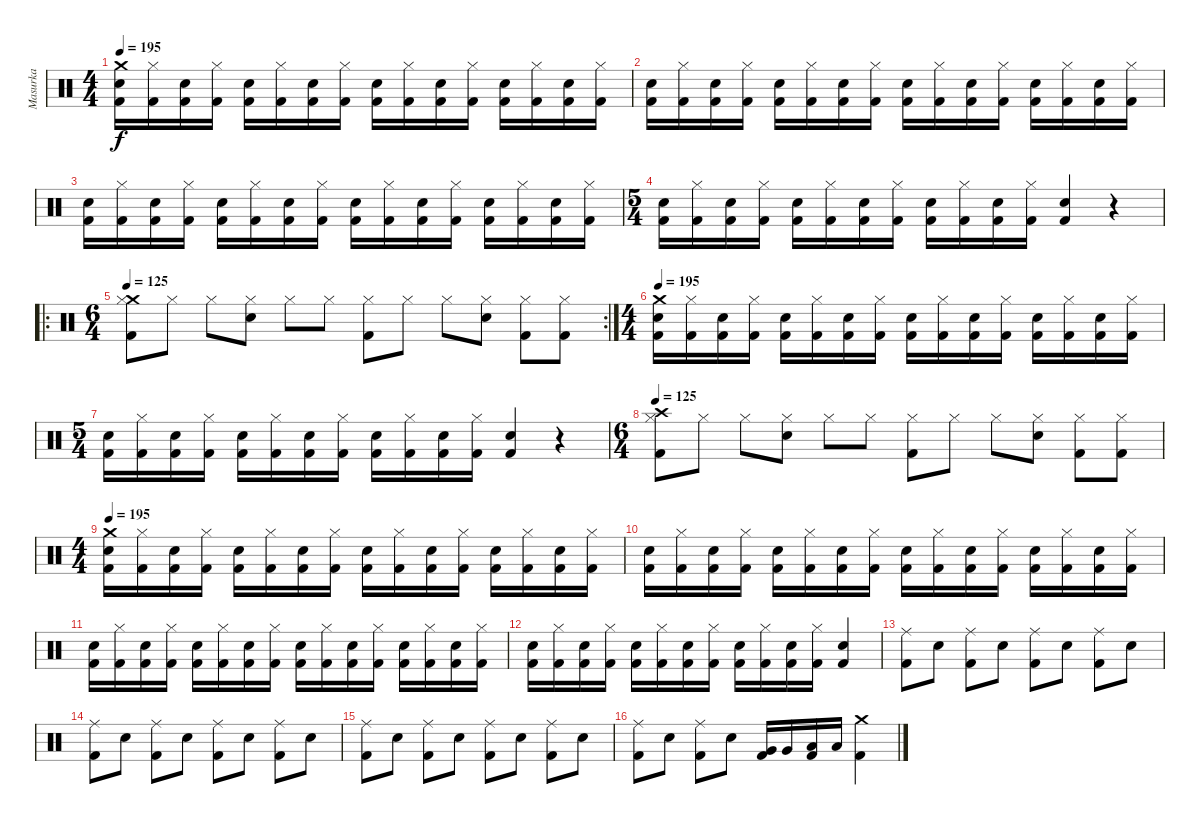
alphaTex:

\track ("Masurka" "Masurka") {instrument percussion}
\staff {score}
\articulation defaults
\ts (4 4)
\tempo 195
\clef neutral
\ks c
("Crash medium (hit)" "Kick (hit) 2" "Snare (hit) 2").16{dy f} ("Hi-Hat (closed)" "Kick (hit) 2").16 ("Kick (hit) 2" "Snare (hit) 2").16 ("Hi-Hat (closed)" "Kick (hit) 2").16 ("Kick (hit) 2" "Snare (hit) 2").16 ("Hi-Hat (closed)" "Kick (hit) 2").16 ("Kick (hit) 2" "Snare (hit) 2").16 ("Hi-Hat (closed)" "Kick (hit) 2").16 ("Kick (hit) 2" "Snare (hit) 2").16 ("Hi-Hat (closed)" "Kick (hit) 2").16 ("Kick (hit) 2" "Snare (hit) 2").16 ("Hi-Hat (closed)" "Kick (hit) 2").16 ("Kick (hit) 2" "Snare (hit) 2").16 ("Hi-Hat (closed)" "Kick (hit) 2").16 ("Kick (hit) 2" "Snare (hit) 2").16 ("Hi-Hat (closed)" "Kick (hit) 2").16 |
("Kick (hit) 2" "Snare (hit) 2").16 ("Hi-Hat (closed)" "Kick (hit) 2").16 ("Kick (hit) 2" "Snare (hit) 2").16 ("Hi-Hat (closed)" "Kick (hit) 2").16 ("Kick (hit) 2" "Snare (hit) 2").16 ("Hi-Hat (closed)" "Kick (hit) 2").16 ("Kick (hit) 2" "Snare (hit) 2").16 ("Hi-Hat (closed)" "Kick (hit) 2").16 ("Kick (hit) 2" "Snare (hit) 2").16 ("Hi-Hat (closed)" "Kick (hit) 2").16 ("Kick (hit) 2" "Snare (hit) 2").16 ("Hi-Hat (closed)" "Kick (hit) 2").16 ("Kick (hit) 2" "Snare (hit) 2").16 ("Hi-Hat (closed)" "Kick (hit) 2").16 ("Kick (hit) 2" "Snare (hit) 2").16 ("Hi-Hat (closed)" "Kick (hit) 2").16 |
("Kick (hit) 2" "Snare (hit) 2").16 ("Hi-Hat (closed)" "Kick (hit) 2").16 ("Kick (hit) 2" "Snare (hit) 2").16 ("Hi-Hat (closed)" "Kick (hit) 2").16 ("Kick (hit) 2" "Snare (hit) 2").16 ("Hi-Hat (closed)" "Kick (hit) 2").16 ("Kick (hit) 2" "Snare (hit) 2").16 ("Hi-Hat (closed)" "Kick (hit) 2").16 ("Kick (hit) 2" "Snare (hit) 2").16 ("Hi-Hat (closed)" "Kick (hit) 2").16 ("Kick (hit) 2" "Snare (hit) 2").16 ("Hi-Hat (closed)" "Kick (hit) 2").16 ("Kick (hit) 2" "Snare (hit) 2").16 ("Hi-Hat (closed)" "Kick (hit) 2").16 ("Kick (hit) 2" "Snare (hit) 2").16 ("Hi-Hat (closed)" "Kick (hit) 2").16 |
\ts (5 4)
("Kick (hit) 2" "Snare (hit) 2").16 ("Hi-Hat (closed)" "Kick (hit) 2").16 ("Kick (hit) 2" "Snare (hit) 2").16 ("Hi-Hat (closed)" "Kick (hit) 2").16 ("Kick (hit) 2" "Snare (hit) 2").16 ("Hi-Hat (closed)" "Kick (hit) 2").16 ("Kick (hit) 2" "Snare (hit) 2").16 ("Hi-Hat (closed)" "Kick (hit) 2").16 ("Kick (hit) 2" "Snare (hit) 2").16 ("Hi-Hat (closed)" "Kick (hit) 2").16 ("Kick (hit) 2" "Snare (hit) 2").16 ("Hi-Hat (closed)" "Kick (hit) 2").16 ("Kick (hit) 2" "Snare (hit) 2").4 r.4 |
\ro
\rc 2
\ts (6 4)
\tempo 125
("Crash medium (hit)" "Hi-Hat (closed)" "Kick (hit) 2").8 "Hi-Hat (closed)".8 "Hi-Hat (closed)".8 ("Hi-Hat (closed)" "Snare (hit) 2").8 "Hi-Hat (closed)".8 "Hi-Hat (closed)".8 ("Hi-Hat (closed)" "Kick (hit) 2").8 "Hi-Hat (closed)".8 "Hi-Hat (closed)".8 ("Hi-Hat (closed)" "Snare (hit) 2").8 ("Hi-Hat (closed)" "Kick (hit) 2").8 ("Hi-Hat (closed)" "Kick (hit) 2").8 |
\ts (4 4)
\tempo 195
("Crash medium (hit)" "Kick (hit) 2" "Snare (hit) 2").16 ("Hi-Hat (closed)" "Kick (hit) 2").16 ("Kick (hit) 2" "Snare (hit) 2").16 ("Hi-Hat (closed)" "Kick (hit) 2").16 ("Kick (hit) 2" "Snare (hit) 2").16 ("Hi-Hat (closed)" "Kick (hit) 2").16 ("Kick (hit) 2" "Snare (hit) 2").16 ("Hi-Hat (closed)" "Kick (hit) 2").16 ("Kick (hit) 2" "Snare (hit) 2").16 ("Hi-Hat (closed)" "Kick (hit) 2").16 ("Kick (hit) 2" "Snare (hit) 2").16 ("Hi-Hat (closed)" "Kick (hit) 2").16 ("Kick (hit) 2" "Snare (hit) 2").16 ("Hi-Hat (closed)" "Kick (hit) 2").16 ("Kick (hit) 2" "Snare (hit) 2").16 ("Hi-Hat (closed)" "Kick (hit) 2").16 |
\ts (5 4)
("Kick (hit) 2" "Snare (hit) 2").16 ("Hi-Hat (closed)" "Kick (hit) 2").16 ("Kick (hit) 2" "Snare (hit) 2").16 ("Hi-Hat (closed)" "Kick (hit) 2").16 ("Kick (hit) 2" "Snare (hit) 2").16 ("Hi-Hat (closed)" "Kick (hit) 2").16 ("Kick (hit) 2" "Snare (hit) 2").16 ("Hi-Hat (closed)" "Kick (hit) 2").16 ("Kick (hit) 2" "Snare (hit) 2").16 ("Hi-Hat (closed)" "Kick (hit) 2").16 ("Kick (hit) 2" "Snare (hit) 2").16 ("Hi-Hat (closed)" "Kick (hit) 2").16 ("Kick (hit) 2" "Snare (hit) 2").4 r.4 |
\ts (6 4)
\tempo 125
("Crash high (hit)" "Hi-Hat (closed)" "Kick (hit) 2").8 "Hi-Hat (closed)".8 "Hi-Hat (closed)".8 ("Hi-Hat (closed)" "Snare (hit) 2").8 "Hi-Hat (closed)".8 "Hi-Hat (closed)".8 ("Hi-Hat (closed)" "Kick (hit) 2").8 "Hi-Hat (closed)".8 "Hi-Hat (closed)".8 ("Hi-Hat (closed)" "Snare (hit) 2").8 ("Hi-Hat (closed)" "Kick (hit) 2").8 ("Hi-Hat (closed)" "Kick (hit) 2").8 |
\ts (4 4)
\tempo 195
("Crash medium (hit)" "Kick (hit) 2" "Snare (hit) 2").16 ("Hi-Hat (closed)" "Kick (hit) 2").16 ("Kick (hit) 2" "Snare (hit) 2").16 ("Hi-Hat (closed)" "Kick (hit) 2").16 ("Kick (hit) 2" "Snare (hit) 2").16 ("Hi-Hat (closed)" "Kick (hit) 2").16 ("Kick (hit) 2" "Snare (hit) 2").16 ("Hi-Hat (closed)" "Kick (hit) 2").16 ("Kick (hit) 2" "Snare (hit) 2").16 ("Hi-Hat (closed)" "Kick (hit) 2").16 ("Kick (hit) 2" "Snare (hit) 2").16 ("Hi-Hat (closed)" "Kick (hit) 2").16 ("Kick (hit) 2" "Snare (hit) 2").16 ("Hi-Hat (closed)" "Kick (hit) 2").16 ("Kick (hit) 2" "Snare (hit) 2").16 ("Hi-Hat (closed)" "Kick (hit) 2").16 |
("Kick (hit) 2" "Snare (hit) 2").16 ("Hi-Hat (closed)" "Kick (hit) 2").16 ("Kick (hit) 2" "Snare (hit) 2").16 ("Hi-Hat (closed)" "Kick (hit) 2").16 ("Kick (hit) 2" "Snare (hit) 2").16 ("Hi-Hat (closed)" "Kick (hit) 2").16 ("Kick (hit) 2" "Snare (hit) 2").16 ("Hi-Hat (closed)" "Kick (hit) 2").16 ("Kick (hit) 2" "Snare (hit) 2").16 ("Hi-Hat (closed)" "Kick (hit) 2").16 ("Kick (hit) 2" "Snare (hit) 2").16 ("Hi-Hat (closed)" "Kick (hit) 2").16 ("Kick (hit) 2" "Snare (hit) 2").16 ("Hi-Hat (closed)" "Kick (hit) 2").16 ("Kick (hit) 2" "Snare (hit) 2").16 ("Hi-Hat (closed)" "Kick (hit) 2").16 |
("Kick (hit) 2" "Snare (hit) 2").16 ("Hi-Hat (closed)" "Kick (hit) 2").16 ("Kick (hit) 2" "Snare (hit) 2").16 ("Hi-Hat (closed)" "Kick (hit) 2").16 ("Kick (hit) 2" "Snare (hit) 2").16 ("Hi-Hat (closed)" "Kick (hit) 2").16 ("Kick (hit) 2" "Snare (hit) 2").16 ("Hi-Hat (closed)" "Kick (hit) 2").16 ("Kick (hit) 2" "Snare (hit) 2").16 ("Hi-Hat (closed)" "Kick (hit) 2").16 ("Kick (hit) 2" "Snare (hit) 2").16 ("Hi-Hat (closed)" "Kick (hit) 2").16 ("Kick (hit) 2" "Snare (hit) 2").16 ("Hi-Hat (closed)" "Kick (hit) 2").16 ("Kick (hit) 2" "Snare (hit) 2").16 ("Hi-Hat (closed)" "Kick (hit) 2").16 |
("Kick (hit) 2" "Snare (hit) 2").16 ("Hi-Hat (closed)" "Kick (hit) 2").16 ("Kick (hit) 2" "Snare (hit) 2").16 ("Hi-Hat (closed)" "Kick (hit) 2").16 ("Kick (hit) 2" "Snare (hit) 2").16 ("Hi-Hat (closed)" "Kick (hit) 2").16 ("Kick (hit) 2" "Snare (hit) 2").16 ("Hi-Hat (closed)" "Kick (hit) 2").16 ("Kick (hit) 2" "Snare (hit) 2").16 ("Hi-Hat (closed)" "Kick (hit) 2").16 ("Kick (hit) 2" "Snare (hit) 2").16 ("Hi-Hat (closed)" "Kick (hit) 2").16 ("Kick (hit) 2" "Snare (hit) 2").4 |
("Ride (middle)" "Kick (hit) 2").8 "Snare (hit) 2".8 ("Ride (middle)" "Kick (hit) 2").8 "Snare (hit) 2".8 ("Ride (middle)" "Kick (hit) 2").8 "Snare (hit) 2".8 ("Ride (middle)" "Kick (hit) 2").8 "Snare (hit) 2".8 |
("Ride (middle)" "Kick (hit) 2").8 "Snare (hit) 2".8 ("Ride (middle)" "Kick (hit) 2").8 "Snare (hit) 2".8 ("Ride (middle)" "Kick (hit) 2").8 "Snare (hit) 2".8 ("Ride (middle)" "Kick (hit) 2").8 "Snare (hit) 2".8 |
("Ride (middle)" "Kick (hit) 2").8 "Snare (hit) 2".8 ("Ride (middle)" "Kick (hit) 2").8 "Snare (hit) 2".8 ("Ride (middle)" "Kick (hit) 2").8 "Snare (hit) 2".8 ("Ride (middle)" "Kick (hit) 2").8 "Snare (hit) 2".8 |
("Ride (middle)" "Kick (hit) 2").8 "Snare (hit) 2".8 ("Ride (middle)" "Kick (hit) 2").8 "Snare (hit) 2".8 ("Kick (hit) 2" "Very Low Tom (hit)").16 "Very Low Tom (hit)".16 ("Kick (hit) 2" "Low Floor Tom (hit)").16 "Low Floor Tom (hit)".16 ("Crash medium (hit)" "Kick (hit) 2").4
